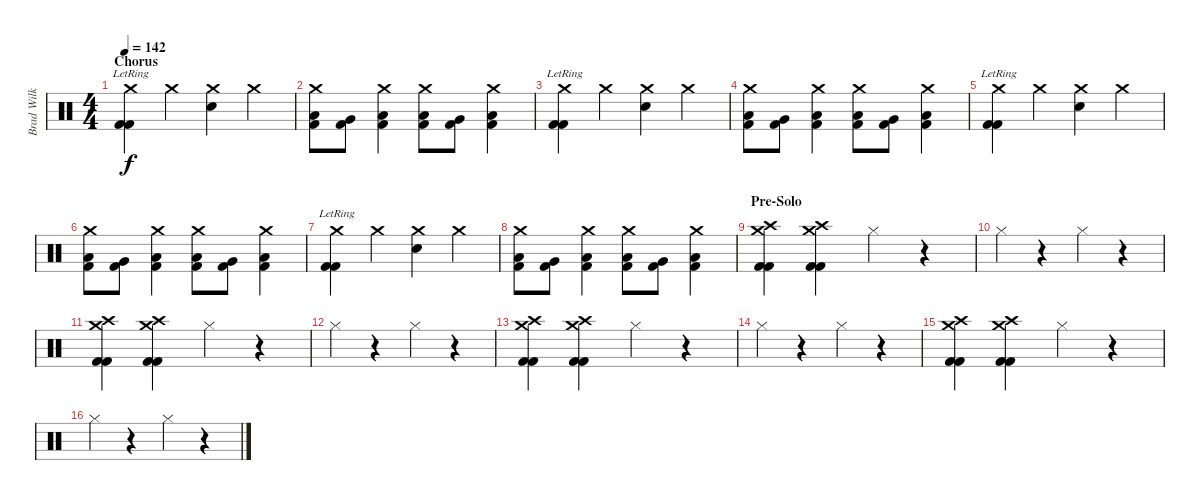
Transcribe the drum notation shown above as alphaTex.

\track ("Brad Wilk" "Brad Wilk") {instrument percussion}
\staff {score}
\articulation defaults
\ts (4 4)
\section ("" "Chorus")
\tempo 142
\clef neutral
\ks c
("Crash medium (hit)"{lr} "Kick (hit) 2" "Kick (hit) 2").4{dy f} "Crash medium (hit)".4 ("Crash medium (hit)" "Electric Snare (hit)").4 "Crash medium (hit)".4 |
("Crash medium (hit)" "Low Tom (hit)" "Kick (hit) 2").8 ("Very Low Tom (hit)" "Kick (hit) 2").8 ("Crash medium (hit)" "Low Floor Tom (hit)" "Kick (hit) 2").4 ("Crash medium (hit)" "Low Tom (hit)" "Kick (hit) 2").8 ("Very Low Tom (hit)" "Kick (hit) 2").8 ("Crash medium (hit)" "Low Floor Tom (hit)" "Kick (hit) 2").4 |
("Crash medium (hit)"{lr} "Kick (hit) 2" "Kick (hit) 2").4 "Crash medium (hit)".4 ("Crash medium (hit)" "Electric Snare (hit)").4 "Crash medium (hit)".4 |
("Crash medium (hit)" "Low Tom (hit)" "Kick (hit) 2").8 ("Very Low Tom (hit)" "Kick (hit) 2").8 ("Crash medium (hit)" "Low Floor Tom (hit)" "Kick (hit) 2").4 ("Crash medium (hit)" "Low Tom (hit)" "Kick (hit) 2").8 ("Very Low Tom (hit)" "Kick (hit) 2").8 ("Crash medium (hit)" "Low Floor Tom (hit)" "Kick (hit) 2").4 |
("Crash medium (hit)"{lr} "Kick (hit) 2" "Kick (hit) 2").4 "Crash medium (hit)".4 ("Crash medium (hit)" "Electric Snare (hit)").4 "Crash medium (hit)".4 |
("Crash medium (hit)" "Low Tom (hit)" "Kick (hit) 2").8 ("Very Low Tom (hit)" "Kick (hit) 2").8 ("Crash medium (hit)" "Low Floor Tom (hit)" "Kick (hit) 2").4 ("Crash medium (hit)" "Low Tom (hit)" "Kick (hit) 2").8 ("Very Low Tom (hit)" "Kick (hit) 2").8 ("Crash medium (hit)" "Low Floor Tom (hit)" "Kick (hit) 2").4 |
("Crash medium (hit)"{lr} "Kick (hit) 2" "Kick (hit) 2").4 "Crash medium (hit)".4 ("Crash medium (hit)" "Electric Snare (hit)").4 "Crash medium (hit)".4 |
("Crash medium (hit)" "Low Tom (hit)" "Kick (hit) 2").8 ("Very Low Tom (hit)" "Kick (hit) 2").8 ("Crash medium (hit)" "Low Floor Tom (hit)" "Kick (hit) 2").4 ("Crash medium (hit)" "Low Tom (hit)" "Kick (hit) 2").8 ("Very Low Tom (hit)" "Kick (hit) 2").8 ("Crash medium (hit)" "Low Floor Tom (hit)" "Kick (hit) 2").4 |
\section ("" "Pre-Solo")
("Crash medium (hit)" "Crash high (hit)" "Kick (hit) 2" "Kick (hit) 2").4 ("Crash medium (hit)" "Crash high (hit)" "Kick (hit) 2" "Kick (hit) 2").4 "Hi-Hat (closed)".4 r.4 |
"Hi-Hat (closed)".4 r.4 "Hi-Hat (closed)".4 r.4 |
("Crash medium (hit)" "Crash high (hit)" "Kick (hit) 2" "Kick (hit) 2").4 ("Crash medium (hit)" "Crash high (hit)" "Kick (hit) 2" "Kick (hit) 2").4 "Hi-Hat (closed)".4 r.4 |
"Hi-Hat (closed)".4 r.4 "Hi-Hat (closed)".4 r.4 |
("Crash medium (hit)" "Crash high (hit)" "Kick (hit) 2" "Kick (hit) 2").4 ("Crash medium (hit)" "Crash high (hit)" "Kick (hit) 2" "Kick (hit) 2").4 "Hi-Hat (closed)".4 r.4 |
"Hi-Hat (closed)".4 r.4 "Hi-Hat (closed)".4 r.4 |
("Crash medium (hit)" "Crash high (hit)" "Kick (hit) 2" "Kick (hit) 2").4 ("Crash medium (hit)" "Crash high (hit)" "Kick (hit) 2" "Kick (hit) 2").4 "Hi-Hat (closed)".4 r.4 |
"Hi-Hat (closed)".4 r.4 "Hi-Hat (closed)".4 r.4
